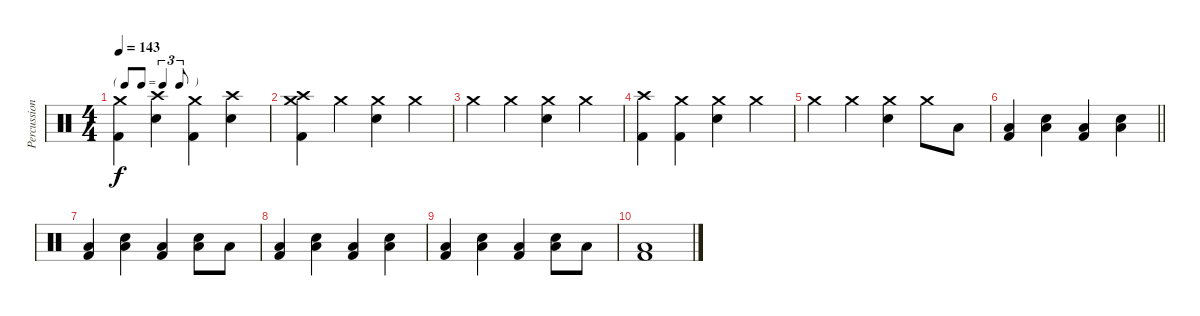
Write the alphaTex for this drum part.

\track ("Percussion" "Percussion") {instrument percussion}
\staff {score}
\articulation defaults
\ts (4 4)
\tf triplet8th
\tempo 143
\clef neutral
\ks c
("Crash medium (hit)" "Kick (hit) 2").4{dy f} ("Crash high (hit)" "Electric Snare (hit)").4 ("Crash medium (hit)" "Kick (hit) 2").4 ("Crash high (hit)" "Electric Snare (hit)").4 |
("Crash medium (hit)" "Crash high (hit)" "Kick (hit) 2").4 "Crash medium (hit)".4 ("Crash medium (hit)" "Electric Snare (hit)").4 "Crash medium (hit)".4 |
"Crash medium (hit)".4 "Crash medium (hit)".4 ("Crash medium (hit)" "Electric Snare (hit)").4 "Crash medium (hit)".4 |
("Crash high (hit)" "Kick (hit) 2").4 ("Crash medium (hit)" "Kick (hit) 2").4 ("Crash medium (hit)" "Electric Snare (hit)").4 "Crash medium (hit)".4 |
"Crash medium (hit)".4 "Crash medium (hit)".4 ("Crash medium (hit)" "Electric Snare (hit)").4 "Crash medium (hit)".8 "Low Tom (hit)".8 |
\barLineRight lightlight
("Low Floor Tom (hit)" "Kick (hit) 2").4 ("Low Floor Tom (hit)" "Electric Snare (hit)").4 ("Low Floor Tom (hit)" "Kick (hit) 2").4 ("Low Floor Tom (hit)" "Electric Snare (hit)").4 |
\section ("" "")
("Low Floor Tom (hit)" "Kick (hit) 2").4 ("Low Floor Tom (hit)" "Electric Snare (hit)").4 ("Low Floor Tom (hit)" "Kick (hit) 2").4 ("Low Floor Tom (hit)" "Electric Snare (hit)").8 "Low Tom (hit)".8 |
("Low Floor Tom (hit)" "Kick (hit) 2").4 ("Low Floor Tom (hit)" "Electric Snare (hit)").4 ("Low Floor Tom (hit)" "Kick (hit) 2").4 ("Low Floor Tom (hit)" "Electric Snare (hit)").4 |
("Low Floor Tom (hit)" "Kick (hit) 2").4 ("Low Floor Tom (hit)" "Electric Snare (hit)").4 ("Low Floor Tom (hit)" "Kick (hit) 2").4 ("Low Floor Tom (hit)" "Electric Snare (hit)").8 "Low Tom (hit)".8 |
("Low Floor Tom (hit)" "Kick (hit) 2").1
